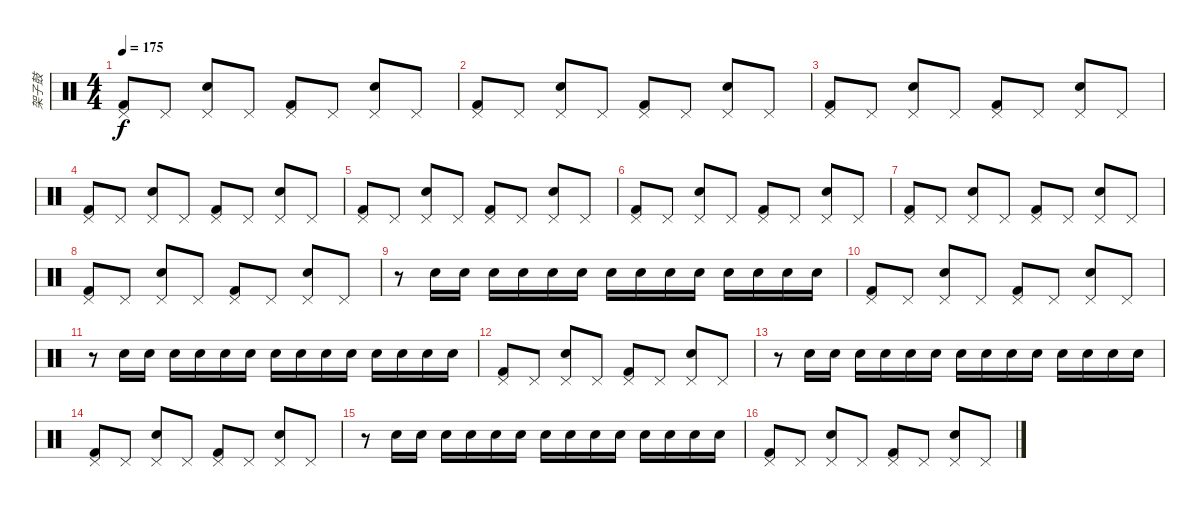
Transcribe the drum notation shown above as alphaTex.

\track ("架子鼓" "架子鼓") {instrument percussion}
\staff {score}
\articulation defaults
\ts (4 4)
\tempo 175
\clef neutral
\ks c
("Pedal Hi-Hat (hit)" "Kick (hit) 2").8{dy f} "Pedal Hi-Hat (hit)".8 ("Pedal Hi-Hat (hit)" "Electric Snare (hit)").8 "Pedal Hi-Hat (hit)".8 ("Pedal Hi-Hat (hit)" "Kick (hit) 2").8 "Pedal Hi-Hat (hit)".8 ("Pedal Hi-Hat (hit)" "Electric Snare (hit)").8 "Pedal Hi-Hat (hit)".8 |
("Pedal Hi-Hat (hit)" "Kick (hit) 2").8 "Pedal Hi-Hat (hit)".8 ("Pedal Hi-Hat (hit)" "Electric Snare (hit)").8 "Pedal Hi-Hat (hit)".8 ("Pedal Hi-Hat (hit)" "Kick (hit) 2").8 "Pedal Hi-Hat (hit)".8 ("Pedal Hi-Hat (hit)" "Electric Snare (hit)").8 "Pedal Hi-Hat (hit)".8 |
("Pedal Hi-Hat (hit)" "Kick (hit) 2").8 "Pedal Hi-Hat (hit)".8 ("Pedal Hi-Hat (hit)" "Electric Snare (hit)").8 "Pedal Hi-Hat (hit)".8 ("Pedal Hi-Hat (hit)" "Kick (hit) 2").8 "Pedal Hi-Hat (hit)".8 ("Pedal Hi-Hat (hit)" "Electric Snare (hit)").8 "Pedal Hi-Hat (hit)".8 |
("Pedal Hi-Hat (hit)" "Kick (hit) 2").8 "Pedal Hi-Hat (hit)".8 ("Pedal Hi-Hat (hit)" "Electric Snare (hit)").8 "Pedal Hi-Hat (hit)".8 ("Pedal Hi-Hat (hit)" "Kick (hit) 2").8 "Pedal Hi-Hat (hit)".8 ("Pedal Hi-Hat (hit)" "Electric Snare (hit)").8 "Pedal Hi-Hat (hit)".8 |
("Pedal Hi-Hat (hit)" "Kick (hit) 2").8 "Pedal Hi-Hat (hit)".8 ("Pedal Hi-Hat (hit)" "Electric Snare (hit)").8 "Pedal Hi-Hat (hit)".8 ("Pedal Hi-Hat (hit)" "Kick (hit) 2").8 "Pedal Hi-Hat (hit)".8 ("Pedal Hi-Hat (hit)" "Electric Snare (hit)").8 "Pedal Hi-Hat (hit)".8 |
("Pedal Hi-Hat (hit)" "Kick (hit) 2").8 "Pedal Hi-Hat (hit)".8 ("Pedal Hi-Hat (hit)" "Electric Snare (hit)").8 "Pedal Hi-Hat (hit)".8 ("Pedal Hi-Hat (hit)" "Kick (hit) 2").8 "Pedal Hi-Hat (hit)".8 ("Pedal Hi-Hat (hit)" "Electric Snare (hit)").8 "Pedal Hi-Hat (hit)".8 |
("Pedal Hi-Hat (hit)" "Kick (hit) 2").8 "Pedal Hi-Hat (hit)".8 ("Pedal Hi-Hat (hit)" "Electric Snare (hit)").8 "Pedal Hi-Hat (hit)".8 ("Pedal Hi-Hat (hit)" "Kick (hit) 2").8 "Pedal Hi-Hat (hit)".8 ("Pedal Hi-Hat (hit)" "Electric Snare (hit)").8 "Pedal Hi-Hat (hit)".8 |
("Pedal Hi-Hat (hit)" "Kick (hit) 2").8 "Pedal Hi-Hat (hit)".8 ("Pedal Hi-Hat (hit)" "Electric Snare (hit)").8 "Pedal Hi-Hat (hit)".8 ("Pedal Hi-Hat (hit)" "Kick (hit) 2").8 "Pedal Hi-Hat (hit)".8 ("Pedal Hi-Hat (hit)" "Electric Snare (hit)").8 "Pedal Hi-Hat (hit)".8 |
r.8 "Electric Snare (hit)".16 "Electric Snare (hit)".16 "Electric Snare (hit)".16 "Electric Snare (hit)".16 "Electric Snare (hit)".16 "Electric Snare (hit)".16 "Electric Snare (hit)".16 "Electric Snare (hit)".16 "Electric Snare (hit)".16 "Electric Snare (hit)".16 "Electric Snare (hit)".16 "Electric Snare (hit)".16 "Electric Snare (hit)".16 "Electric Snare (hit)".16 |
("Pedal Hi-Hat (hit)" "Kick (hit) 2").8 "Pedal Hi-Hat (hit)".8 ("Pedal Hi-Hat (hit)" "Electric Snare (hit)").8 "Pedal Hi-Hat (hit)".8 ("Pedal Hi-Hat (hit)" "Kick (hit) 2").8 "Pedal Hi-Hat (hit)".8 ("Pedal Hi-Hat (hit)" "Electric Snare (hit)").8 "Pedal Hi-Hat (hit)".8 |
r.8 "Electric Snare (hit)".16 "Electric Snare (hit)".16 "Electric Snare (hit)".16 "Electric Snare (hit)".16 "Electric Snare (hit)".16 "Electric Snare (hit)".16 "Electric Snare (hit)".16 "Electric Snare (hit)".16 "Electric Snare (hit)".16 "Electric Snare (hit)".16 "Electric Snare (hit)".16 "Electric Snare (hit)".16 "Electric Snare (hit)".16 "Electric Snare (hit)".16 |
("Pedal Hi-Hat (hit)" "Kick (hit) 2").8 "Pedal Hi-Hat (hit)".8 ("Pedal Hi-Hat (hit)" "Electric Snare (hit)").8 "Pedal Hi-Hat (hit)".8 ("Pedal Hi-Hat (hit)" "Kick (hit) 2").8 "Pedal Hi-Hat (hit)".8 ("Pedal Hi-Hat (hit)" "Electric Snare (hit)").8 "Pedal Hi-Hat (hit)".8 |
r.8 "Electric Snare (hit)".16 "Electric Snare (hit)".16 "Electric Snare (hit)".16 "Electric Snare (hit)".16 "Electric Snare (hit)".16 "Electric Snare (hit)".16 "Electric Snare (hit)".16 "Electric Snare (hit)".16 "Electric Snare (hit)".16 "Electric Snare (hit)".16 "Electric Snare (hit)".16 "Electric Snare (hit)".16 "Electric Snare (hit)".16 "Electric Snare (hit)".16 |
("Pedal Hi-Hat (hit)" "Kick (hit) 2").8 "Pedal Hi-Hat (hit)".8 ("Pedal Hi-Hat (hit)" "Electric Snare (hit)").8 "Pedal Hi-Hat (hit)".8 ("Pedal Hi-Hat (hit)" "Kick (hit) 2").8 "Pedal Hi-Hat (hit)".8 ("Pedal Hi-Hat (hit)" "Electric Snare (hit)").8 "Pedal Hi-Hat (hit)".8 |
r.8 "Electric Snare (hit)".16 "Electric Snare (hit)".16 "Electric Snare (hit)".16 "Electric Snare (hit)".16 "Electric Snare (hit)".16 "Electric Snare (hit)".16 "Electric Snare (hit)".16 "Electric Snare (hit)".16 "Electric Snare (hit)".16 "Electric Snare (hit)".16 "Electric Snare (hit)".16 "Electric Snare (hit)".16 "Electric Snare (hit)".16 "Electric Snare (hit)".16 |
("Pedal Hi-Hat (hit)" "Kick (hit) 2").8 "Pedal Hi-Hat (hit)".8 ("Pedal Hi-Hat (hit)" "Electric Snare (hit)").8 "Pedal Hi-Hat (hit)".8 ("Pedal Hi-Hat (hit)" "Kick (hit) 2").8 "Pedal Hi-Hat (hit)".8 ("Pedal Hi-Hat (hit)" "Electric Snare (hit)").8 "Pedal Hi-Hat (hit)".8
